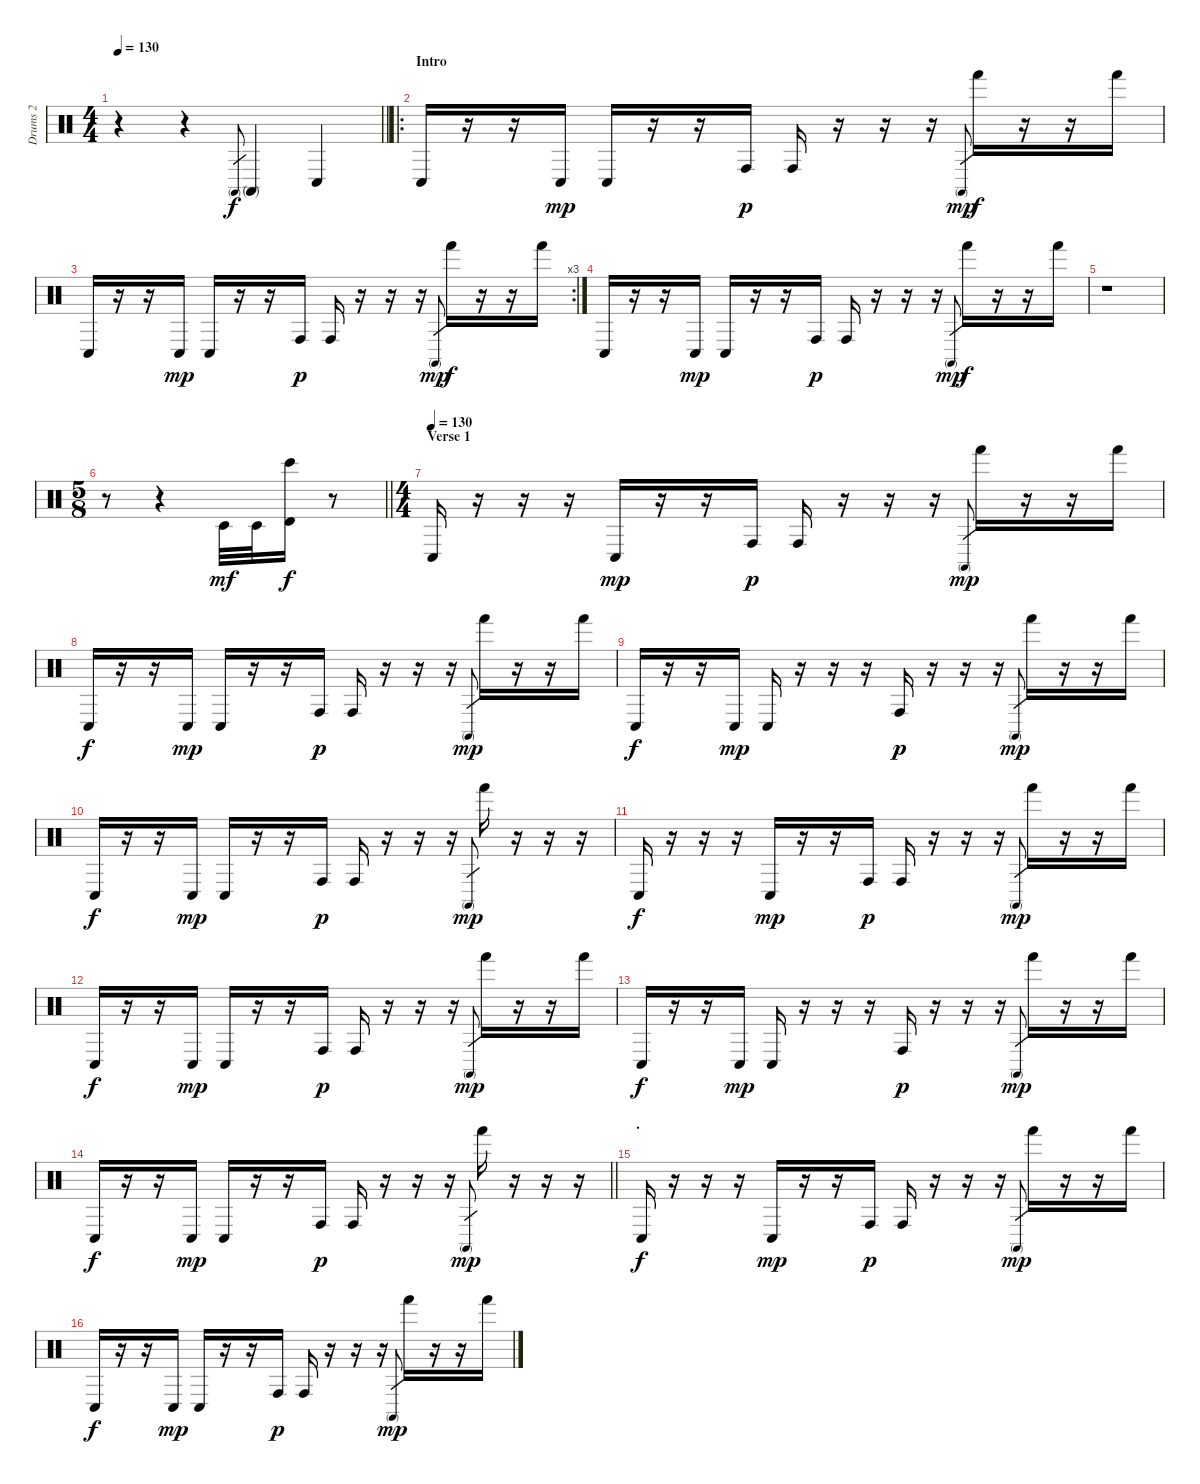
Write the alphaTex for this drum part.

\track ("Drums 2" "Drums 2") {instrument percussion}
\staff {score}
\articulation defaults
\ts (4 4)
\tempo 130
\clef neutral
\barLineRight lightlight
\ks c
r.4{dy f} r.4 "Conga high (mute)".8{gr} "Conga high (mute)".4 "Conga low (hit)".4 |
\ro
\section ("" "Intro")
"Conga low (hit)".16 r.16 r.16 "Conga low (hit)".16{dy mp} "Conga low (hit)".16 r.16 r.16 "Conga high (hit)".16{dy p} "Conga high (hit)".16 r.16 r.16 r.16 "Conga high (mute)".8{gr dy mp} "Hand (hit)".16{dy f} r.16 r.16 "Hand (hit)".16 |
\rc 3 "Conga low (hit)".16
r.16 r.16 "Conga low (hit)".16{dy mp} "Conga low (hit)".16 r.16 r.16 "Conga high (hit)".16{dy p} "Conga high (hit)".16 r.16 r.16 r.16 "Conga high (mute)".8{gr dy mp} "Hand (hit)".16{dy f} r.16 r.16 "Hand (hit)".16 |
"Conga low (hit)".16 r.16 r.16 "Conga low (hit)".16{dy mp} "Conga low (hit)".16 r.16 r.16 "Conga high (hit)".16{dy p} "Conga high (hit)".16 r.16 r.16 r.16 "Conga high (mute)".8{gr dy mp} "Hand (hit)".16{dy f} r.16 r.16 "Hand (hit)".16 |
r.1 |
\ts (5 8)
\barLineRight lightlight
r.8 r.4 "Timbale low (hit)".32{dy mf} "Timbale low (hit)".32 ("Bongo High (hit)" "Timbale high (hit)").16{dy f} r.8 |
\ts (4 4)
\section ("" "Verse 1")
\tempo (130)
"Conga low (hit)".16 r.16 r.16 r.16 "Conga low (hit)".16{dy mp} r.16 r.16 "Conga high (hit)".16{dy p} "Conga high (hit)".16 r.16 r.16 r.16 "Conga high (mute)".8{gr dy mp} "Hand (hit)".16 r.16 r.16 "Hand (hit)".16 |
"Conga low (hit)".16{dy f} r.16 r.16 "Conga low (hit)".16{dy mp} "Conga low (hit)".16 r.16 r.16 "Conga high (hit)".16{dy p} "Conga high (hit)".16 r.16 r.16 r.16 "Conga high (mute)".8{gr dy mp} "Hand (hit)".16 r.16 r.16 "Hand (hit)".16 |
"Conga low (hit)".16{dy f} r.16 r.16 "Conga low (hit)".16{dy mp} "Conga low (hit)".16 r.16 r.16 r.16 "Conga high (hit)".16{dy p} r.16 r.16 r.16 "Conga high (mute)".8{gr dy mp} "Hand (hit)".16 r.16 r.16 "Hand (hit)".16 |
"Conga low (hit)".16{dy f} r.16 r.16 "Conga low (hit)".16{dy mp} "Conga low (hit)".16 r.16 r.16 "Conga high (hit)".16{dy p} "Conga high (hit)".16 r.16 r.16 r.16 "Conga high (mute)".8{gr dy mp} "Hand (hit)".16 r.16 r.16 r.16 |
"Conga low (hit)".16{dy f} r.16 r.16 r.16 "Conga low (hit)".16{dy mp} r.16 r.16 "Conga high (hit)".16{dy p} "Conga high (hit)".16 r.16 r.16 r.16 "Conga high (mute)".8{gr dy mp} "Hand (hit)".16 r.16 r.16 "Hand (hit)".16 |
"Conga low (hit)".16{dy f} r.16 r.16 "Conga low (hit)".16{dy mp} "Conga low (hit)".16 r.16 r.16 "Conga high (hit)".16{dy p} "Conga high (hit)".16 r.16 r.16 r.16 "Conga high (mute)".8{gr dy mp} "Hand (hit)".16 r.16 r.16 "Hand (hit)".16 |
"Conga low (hit)".16{dy f} r.16 r.16 "Conga low (hit)".16{dy mp} "Conga low (hit)".16 r.16 r.16 r.16 "Conga high (hit)".16{dy p} r.16 r.16 r.16 "Conga high (mute)".8{gr dy mp} "Hand (hit)".16 r.16 r.16 "Hand (hit)".16 |
\barLineRight lightlight "Conga low (hit)".16{dy f}
r.16 r.16 "Conga low (hit)".16{dy mp} "Conga low (hit)".16 r.16 r.16 "Conga high (hit)".16{dy p} "Conga high (hit)".16 r.16 r.16 r.16 "Conga high (mute)".8{gr dy mp} "Hand (hit)".16 r.16 r.16 r.16 |
\section ("" ".")
"Conga low (hit)".16{dy f} r.16 r.16 r.16 "Conga low (hit)".16{dy mp} r.16 r.16 "Conga high (hit)".16{dy p} "Conga high (hit)".16 r.16 r.16 r.16 "Conga high (mute)".8{gr dy mp} "Hand (hit)".16 r.16 r.16 "Hand (hit)".16 |
"Conga low (hit)".16{dy f} r.16 r.16 "Conga low (hit)".16{dy mp} "Conga low (hit)".16 r.16 r.16 "Conga high (hit)".16{dy p} "Conga high (hit)".16 r.16 r.16 r.16 "Conga high (mute)".8{gr dy mp} "Hand (hit)".16 r.16 r.16 "Hand (hit)".16
